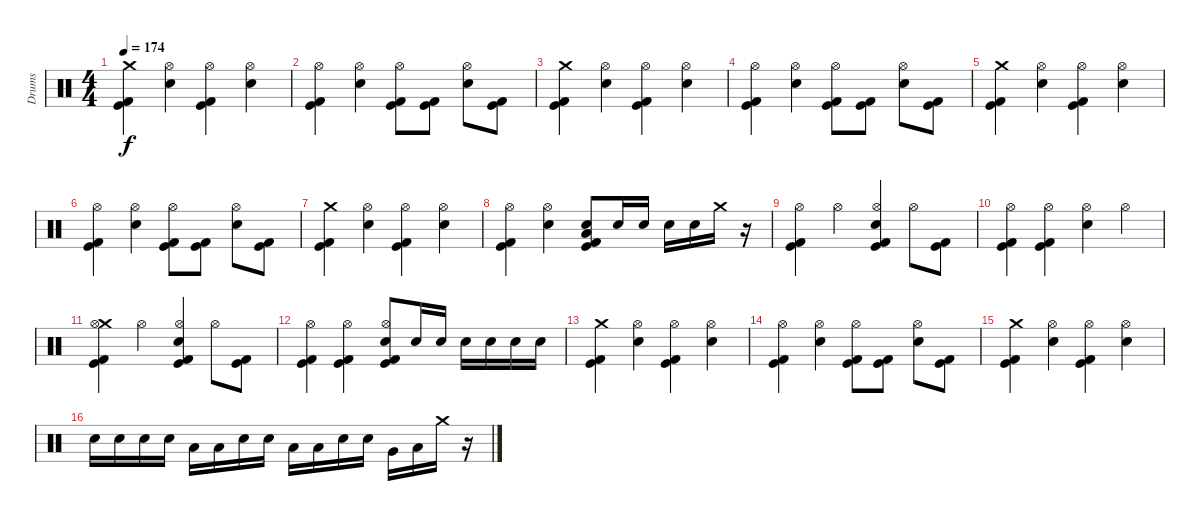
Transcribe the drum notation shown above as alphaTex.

\track ("Drums" "Drums") {instrument percussion}
\staff {score}
\articulation defaults
\ts (4 4)
\tempo 174
\clef neutral
\ks c
("Crash medium (hit)" "Kick (hit) 2" "Kick (hit)").4{dy f} ("Hi-Hat (open)" "Electric Snare (hit)").4 ("Hi-Hat (open)" "Kick (hit) 2" "Kick (hit)").4 ("Hi-Hat (open)" "Electric Snare (hit)").4 |
("Hi-Hat (open)" "Kick (hit) 2" "Kick (hit)").4 ("Hi-Hat (open)" "Electric Snare (hit)").4 ("Hi-Hat (open)" "Kick (hit) 2" "Kick (hit)").8 ("Kick (hit) 2" "Kick (hit)").8 ("Hi-Hat (open)" "Electric Snare (hit)").8 ("Kick (hit) 2" "Kick (hit)").8 |
("Crash medium (hit)" "Kick (hit) 2" "Kick (hit)").4 ("Hi-Hat (open)" "Electric Snare (hit)").4 ("Hi-Hat (open)" "Kick (hit) 2" "Kick (hit)").4 ("Hi-Hat (open)" "Electric Snare (hit)").4 |
("Hi-Hat (open)" "Kick (hit) 2" "Kick (hit)").4 ("Hi-Hat (open)" "Electric Snare (hit)").4 ("Hi-Hat (open)" "Kick (hit) 2" "Kick (hit)").8 ("Kick (hit) 2" "Kick (hit)").8 ("Hi-Hat (open)" "Electric Snare (hit)").8 ("Kick (hit) 2" "Kick (hit)").8 |
("Crash medium (hit)" "Kick (hit) 2" "Kick (hit)").4 ("Hi-Hat (open)" "Electric Snare (hit)").4 ("Hi-Hat (open)" "Kick (hit) 2" "Kick (hit)").4 ("Hi-Hat (open)" "Electric Snare (hit)").4 |
("Hi-Hat (open)" "Kick (hit) 2" "Kick (hit)").4 ("Hi-Hat (open)" "Electric Snare (hit)").4 ("Hi-Hat (open)" "Kick (hit) 2" "Kick (hit)").8 ("Kick (hit) 2" "Kick (hit)").8 ("Hi-Hat (open)" "Electric Snare (hit)").8 ("Kick (hit) 2" "Kick (hit)").8 |
("Crash medium (hit)" "Kick (hit) 2" "Kick (hit)").4 ("Hi-Hat (open)" "Electric Snare (hit)").4 ("Hi-Hat (open)" "Kick (hit) 2" "Kick (hit)").4 ("Hi-Hat (open)" "Electric Snare (hit)").4 |
("Hi-Hat (open)" "Kick (hit) 2" "Kick (hit)").4 ("Hi-Hat (open)" "Electric Snare (hit)").4 ("Electric Snare (hit)" "Low Floor Tom (hit)" "Kick (hit) 2" "Kick (hit)").8 "Electric Snare (hit)".16 "Electric Snare (hit)".16 "Electric Snare (hit)".16 "Electric Snare (hit)".16 "Crash medium (hit)".16 r.16 |
("Hi-Hat (open)" "Kick (hit) 2" "Kick (hit)").4 "Hi-Hat (open)".4 ("Hi-Hat (open)" "Electric Snare (hit)" "Kick (hit) 2" "Kick (hit)").4 "Hi-Hat (open)".8 ("Kick (hit) 2" "Kick (hit)").8 |
("Hi-Hat (open)" "Kick (hit) 2" "Kick (hit)").4 ("Hi-Hat (open)" "Kick (hit) 2" "Kick (hit)").4 ("Hi-Hat (open)" "Electric Snare (hit)").4 "Hi-Hat (open)".4 |
("Crash medium (hit)" "Hi-Hat (open)" "Kick (hit) 2" "Kick (hit)").4 "Hi-Hat (open)".4 ("Hi-Hat (open)" "Electric Snare (hit)" "Kick (hit) 2" "Kick (hit)").4 "Hi-Hat (open)".8 ("Kick (hit) 2" "Kick (hit)").8 |
("Hi-Hat (open)" "Kick (hit) 2" "Kick (hit)").4 ("Hi-Hat (open)" "Kick (hit) 2" "Kick (hit)").4 ("Hi-Hat (open)" "Electric Snare (hit)" "Kick (hit) 2" "Kick (hit)").8 "Electric Snare (hit)".16 "Electric Snare (hit)".16 "Electric Snare (hit)".16 "Electric Snare (hit)".16 "Electric Snare (hit)".16 "Electric Snare (hit)".16 |
("Crash medium (hit)" "Kick (hit) 2" "Kick (hit)").4 ("Hi-Hat (open)" "Electric Snare (hit)").4 ("Hi-Hat (open)" "Kick (hit) 2" "Kick (hit)").4 ("Hi-Hat (open)" "Electric Snare (hit)").4 |
("Hi-Hat (open)" "Kick (hit) 2" "Kick (hit)").4 ("Hi-Hat (open)" "Electric Snare (hit)").4 ("Hi-Hat (open)" "Kick (hit) 2" "Kick (hit)").8 ("Kick (hit) 2" "Kick (hit)").8 ("Hi-Hat (open)" "Electric Snare (hit)").8 ("Kick (hit) 2" "Kick (hit)").8 |
("Crash medium (hit)" "Kick (hit) 2" "Kick (hit)").4 ("Hi-Hat (open)" "Electric Snare (hit)").4 ("Hi-Hat (open)" "Kick (hit) 2" "Kick (hit)").4 ("Hi-Hat (open)" "Electric Snare (hit)").4 |
"Electric Snare (hit)".16 "Electric Snare (hit)".16 "Electric Snare (hit)".16 "Electric Snare (hit)".16 "Low Floor Tom (hit)".16 "Low Floor Tom (hit)".16 "Electric Snare (hit)".16 "Electric Snare (hit)".16 "Low Floor Tom (hit)".16 "Low Floor Tom (hit)".16 "Electric Snare (hit)".16 "Electric Snare (hit)".16 "Very Low Tom (hit)".16 "Low Floor Tom (hit)".16 "Crash medium (hit)".16 r.16
